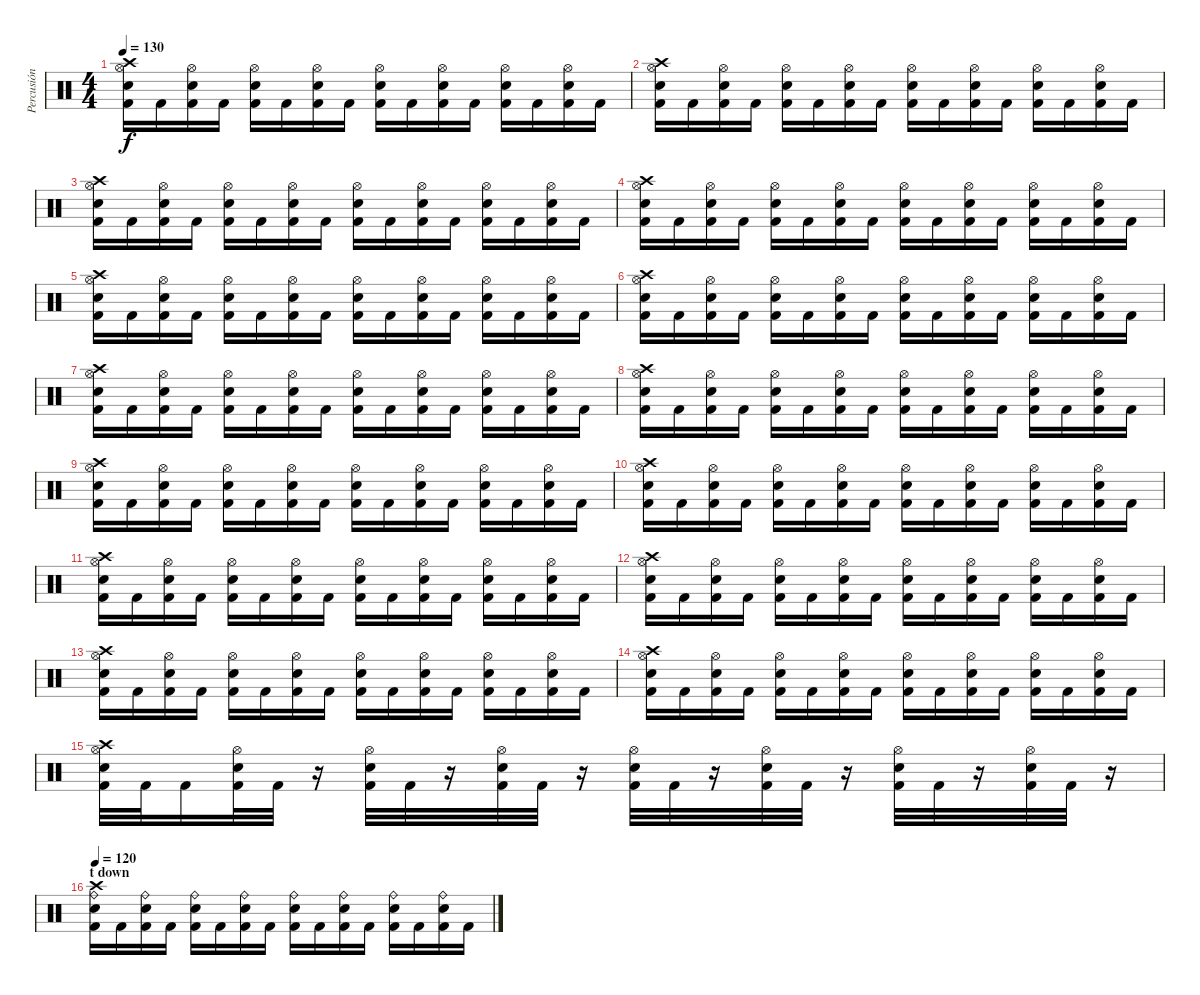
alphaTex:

\track ("Percusión" "Percusión") {instrument percussion}
\staff {score}
\articulation defaults
\ts (4 4)
\tempo 130
\clef neutral
\ks c
("Crash high (hit)" "Hi-Hat (open)" "Electric Snare (hit)" "Kick (hit) 2").16{dy f} "Kick (hit) 2".16 ("Hi-Hat (open)" "Electric Snare (hit)" "Kick (hit) 2").16 "Kick (hit) 2".16 ("Hi-Hat (open)" "Electric Snare (hit)" "Kick (hit) 2").16 "Kick (hit) 2".16 ("Hi-Hat (open)" "Electric Snare (hit)" "Kick (hit) 2").16 "Kick (hit) 2".16 ("Hi-Hat (open)" "Electric Snare (hit)" "Kick (hit) 2").16 "Kick (hit) 2".16 ("Hi-Hat (open)" "Electric Snare (hit)" "Kick (hit) 2").16 "Kick (hit) 2".16 ("Hi-Hat (open)" "Electric Snare (hit)" "Kick (hit) 2").16 "Kick (hit) 2".16 ("Hi-Hat (open)" "Electric Snare (hit)" "Kick (hit) 2").16 "Kick (hit) 2".16 |
("Crash high (hit)" "Hi-Hat (open)" "Electric Snare (hit)" "Kick (hit) 2").16 "Kick (hit) 2".16 ("Hi-Hat (open)" "Electric Snare (hit)" "Kick (hit) 2").16 "Kick (hit) 2".16 ("Hi-Hat (open)" "Electric Snare (hit)" "Kick (hit) 2").16 "Kick (hit) 2".16 ("Hi-Hat (open)" "Electric Snare (hit)" "Kick (hit) 2").16 "Kick (hit) 2".16 ("Hi-Hat (open)" "Electric Snare (hit)" "Kick (hit) 2").16 "Kick (hit) 2".16 ("Hi-Hat (open)" "Electric Snare (hit)" "Kick (hit) 2").16 "Kick (hit) 2".16 ("Hi-Hat (open)" "Electric Snare (hit)" "Kick (hit) 2").16 "Kick (hit) 2".16 ("Hi-Hat (open)" "Electric Snare (hit)" "Kick (hit) 2").16 "Kick (hit) 2".16 |
("Crash high (hit)" "Hi-Hat (open)" "Electric Snare (hit)" "Kick (hit) 2").16 "Kick (hit) 2".16 ("Hi-Hat (open)" "Electric Snare (hit)" "Kick (hit) 2").16 "Kick (hit) 2".16 ("Hi-Hat (open)" "Electric Snare (hit)" "Kick (hit) 2").16 "Kick (hit) 2".16 ("Hi-Hat (open)" "Electric Snare (hit)" "Kick (hit) 2").16 "Kick (hit) 2".16 ("Hi-Hat (open)" "Electric Snare (hit)" "Kick (hit) 2").16 "Kick (hit) 2".16 ("Hi-Hat (open)" "Electric Snare (hit)" "Kick (hit) 2").16 "Kick (hit) 2".16 ("Hi-Hat (open)" "Electric Snare (hit)" "Kick (hit) 2").16 "Kick (hit) 2".16 ("Hi-Hat (open)" "Electric Snare (hit)" "Kick (hit) 2").16 "Kick (hit) 2".16 |
("Crash high (hit)" "Hi-Hat (open)" "Electric Snare (hit)" "Kick (hit) 2").16 "Kick (hit) 2".16 ("Hi-Hat (open)" "Electric Snare (hit)" "Kick (hit) 2").16 "Kick (hit) 2".16 ("Hi-Hat (open)" "Electric Snare (hit)" "Kick (hit) 2").16 "Kick (hit) 2".16 ("Hi-Hat (open)" "Electric Snare (hit)" "Kick (hit) 2").16 "Kick (hit) 2".16 ("Hi-Hat (open)" "Electric Snare (hit)" "Kick (hit) 2").16 "Kick (hit) 2".16 ("Hi-Hat (open)" "Electric Snare (hit)" "Kick (hit) 2").16 "Kick (hit) 2".16 ("Hi-Hat (open)" "Electric Snare (hit)" "Kick (hit) 2").16 "Kick (hit) 2".16 ("Hi-Hat (open)" "Electric Snare (hit)" "Kick (hit) 2").16 "Kick (hit) 2".16 |
("Crash high (hit)" "Hi-Hat (open)" "Electric Snare (hit)" "Kick (hit) 2").16 "Kick (hit) 2".16 ("Hi-Hat (open)" "Electric Snare (hit)" "Kick (hit) 2").16 "Kick (hit) 2".16 ("Hi-Hat (open)" "Electric Snare (hit)" "Kick (hit) 2").16 "Kick (hit) 2".16 ("Hi-Hat (open)" "Electric Snare (hit)" "Kick (hit) 2").16 "Kick (hit) 2".16 ("Hi-Hat (open)" "Electric Snare (hit)" "Kick (hit) 2").16 "Kick (hit) 2".16 ("Hi-Hat (open)" "Electric Snare (hit)" "Kick (hit) 2").16 "Kick (hit) 2".16 ("Hi-Hat (open)" "Electric Snare (hit)" "Kick (hit) 2").16 "Kick (hit) 2".16 ("Hi-Hat (open)" "Electric Snare (hit)" "Kick (hit) 2").16 "Kick (hit) 2".16 |
("Crash high (hit)" "Hi-Hat (open)" "Electric Snare (hit)" "Kick (hit) 2").16 "Kick (hit) 2".16 ("Hi-Hat (open)" "Electric Snare (hit)" "Kick (hit) 2").16 "Kick (hit) 2".16 ("Hi-Hat (open)" "Electric Snare (hit)" "Kick (hit) 2").16 "Kick (hit) 2".16 ("Hi-Hat (open)" "Electric Snare (hit)" "Kick (hit) 2").16 "Kick (hit) 2".16 ("Hi-Hat (open)" "Electric Snare (hit)" "Kick (hit) 2").16 "Kick (hit) 2".16 ("Hi-Hat (open)" "Electric Snare (hit)" "Kick (hit) 2").16 "Kick (hit) 2".16 ("Hi-Hat (open)" "Electric Snare (hit)" "Kick (hit) 2").16 "Kick (hit) 2".16 ("Hi-Hat (open)" "Electric Snare (hit)" "Kick (hit) 2").16 "Kick (hit) 2".16 |
("Crash high (hit)" "Hi-Hat (open)" "Electric Snare (hit)" "Kick (hit) 2").16 "Kick (hit) 2".16 ("Hi-Hat (open)" "Electric Snare (hit)" "Kick (hit) 2").16 "Kick (hit) 2".16 ("Hi-Hat (open)" "Electric Snare (hit)" "Kick (hit) 2").16 "Kick (hit) 2".16 ("Hi-Hat (open)" "Electric Snare (hit)" "Kick (hit) 2").16 "Kick (hit) 2".16 ("Hi-Hat (open)" "Electric Snare (hit)" "Kick (hit) 2").16 "Kick (hit) 2".16 ("Hi-Hat (open)" "Electric Snare (hit)" "Kick (hit) 2").16 "Kick (hit) 2".16 ("Hi-Hat (open)" "Electric Snare (hit)" "Kick (hit) 2").16 "Kick (hit) 2".16 ("Hi-Hat (open)" "Electric Snare (hit)" "Kick (hit) 2").16 "Kick (hit) 2".16 |
("Crash high (hit)" "Hi-Hat (open)" "Electric Snare (hit)" "Kick (hit) 2").16 "Kick (hit) 2".16 ("Hi-Hat (open)" "Electric Snare (hit)" "Kick (hit) 2").16 "Kick (hit) 2".16 ("Hi-Hat (open)" "Electric Snare (hit)" "Kick (hit) 2").16 "Kick (hit) 2".16 ("Hi-Hat (open)" "Electric Snare (hit)" "Kick (hit) 2").16 "Kick (hit) 2".16 ("Hi-Hat (open)" "Electric Snare (hit)" "Kick (hit) 2").16 "Kick (hit) 2".16 ("Hi-Hat (open)" "Electric Snare (hit)" "Kick (hit) 2").16 "Kick (hit) 2".16 ("Hi-Hat (open)" "Electric Snare (hit)" "Kick (hit) 2").16 "Kick (hit) 2".16 ("Hi-Hat (open)" "Electric Snare (hit)" "Kick (hit) 2").16 "Kick (hit) 2".16 |
("Crash high (hit)" "Hi-Hat (open)" "Electric Snare (hit)" "Kick (hit) 2").16 "Kick (hit) 2".16 ("Hi-Hat (open)" "Electric Snare (hit)" "Kick (hit) 2").16 "Kick (hit) 2".16 ("Hi-Hat (open)" "Electric Snare (hit)" "Kick (hit) 2").16 "Kick (hit) 2".16 ("Hi-Hat (open)" "Electric Snare (hit)" "Kick (hit) 2").16 "Kick (hit) 2".16 ("Hi-Hat (open)" "Electric Snare (hit)" "Kick (hit) 2").16 "Kick (hit) 2".16 ("Hi-Hat (open)" "Electric Snare (hit)" "Kick (hit) 2").16 "Kick (hit) 2".16 ("Hi-Hat (open)" "Electric Snare (hit)" "Kick (hit) 2").16 "Kick (hit) 2".16 ("Hi-Hat (open)" "Electric Snare (hit)" "Kick (hit) 2").16 "Kick (hit) 2".16 |
("Crash high (hit)" "Hi-Hat (open)" "Electric Snare (hit)" "Kick (hit) 2").16 "Kick (hit) 2".16 ("Hi-Hat (open)" "Electric Snare (hit)" "Kick (hit) 2").16 "Kick (hit) 2".16 ("Hi-Hat (open)" "Electric Snare (hit)" "Kick (hit) 2").16 "Kick (hit) 2".16 ("Hi-Hat (open)" "Electric Snare (hit)" "Kick (hit) 2").16 "Kick (hit) 2".16 ("Hi-Hat (open)" "Electric Snare (hit)" "Kick (hit) 2").16 "Kick (hit) 2".16 ("Hi-Hat (open)" "Electric Snare (hit)" "Kick (hit) 2").16 "Kick (hit) 2".16 ("Hi-Hat (open)" "Electric Snare (hit)" "Kick (hit) 2").16 "Kick (hit) 2".16 ("Hi-Hat (open)" "Electric Snare (hit)" "Kick (hit) 2").16 "Kick (hit) 2".16 |
("Crash high (hit)" "Hi-Hat (open)" "Electric Snare (hit)" "Kick (hit) 2").16 "Kick (hit) 2".16 ("Hi-Hat (open)" "Electric Snare (hit)" "Kick (hit) 2").16 "Kick (hit) 2".16 ("Hi-Hat (open)" "Electric Snare (hit)" "Kick (hit) 2").16 "Kick (hit) 2".16 ("Hi-Hat (open)" "Electric Snare (hit)" "Kick (hit) 2").16 "Kick (hit) 2".16 ("Hi-Hat (open)" "Electric Snare (hit)" "Kick (hit) 2").16 "Kick (hit) 2".16 ("Hi-Hat (open)" "Electric Snare (hit)" "Kick (hit) 2").16 "Kick (hit) 2".16 ("Hi-Hat (open)" "Electric Snare (hit)" "Kick (hit) 2").16 "Kick (hit) 2".16 ("Hi-Hat (open)" "Electric Snare (hit)" "Kick (hit) 2").16 "Kick (hit) 2".16 |
("Crash high (hit)" "Hi-Hat (open)" "Electric Snare (hit)" "Kick (hit) 2").16 "Kick (hit) 2".16 ("Hi-Hat (open)" "Electric Snare (hit)" "Kick (hit) 2").16 "Kick (hit) 2".16 ("Hi-Hat (open)" "Electric Snare (hit)" "Kick (hit) 2").16 "Kick (hit) 2".16 ("Hi-Hat (open)" "Electric Snare (hit)" "Kick (hit) 2").16 "Kick (hit) 2".16 ("Hi-Hat (open)" "Electric Snare (hit)" "Kick (hit) 2").16 "Kick (hit) 2".16 ("Hi-Hat (open)" "Electric Snare (hit)" "Kick (hit) 2").16 "Kick (hit) 2".16 ("Hi-Hat (open)" "Electric Snare (hit)" "Kick (hit) 2").16 "Kick (hit) 2".16 ("Hi-Hat (open)" "Electric Snare (hit)" "Kick (hit) 2").16 "Kick (hit) 2".16 |
("Crash high (hit)" "Hi-Hat (open)" "Electric Snare (hit)" "Kick (hit) 2").16 "Kick (hit) 2".16 ("Hi-Hat (open)" "Electric Snare (hit)" "Kick (hit) 2").16 "Kick (hit) 2".16 ("Hi-Hat (open)" "Electric Snare (hit)" "Kick (hit) 2").16 "Kick (hit) 2".16 ("Hi-Hat (open)" "Electric Snare (hit)" "Kick (hit) 2").16 "Kick (hit) 2".16 ("Hi-Hat (open)" "Electric Snare (hit)" "Kick (hit) 2").16 "Kick (hit) 2".16 ("Hi-Hat (open)" "Electric Snare (hit)" "Kick (hit) 2").16 "Kick (hit) 2".16 ("Hi-Hat (open)" "Electric Snare (hit)" "Kick (hit) 2").16 "Kick (hit) 2".16 ("Hi-Hat (open)" "Electric Snare (hit)" "Kick (hit) 2").16 "Kick (hit) 2".16 |
("Crash high (hit)" "Hi-Hat (open)" "Electric Snare (hit)" "Kick (hit) 2").16 "Kick (hit) 2".16 ("Hi-Hat (open)" "Electric Snare (hit)" "Kick (hit) 2").16 "Kick (hit) 2".16 ("Hi-Hat (open)" "Electric Snare (hit)" "Kick (hit) 2").16 "Kick (hit) 2".16 ("Hi-Hat (open)" "Electric Snare (hit)" "Kick (hit) 2").16 "Kick (hit) 2".16 ("Hi-Hat (open)" "Electric Snare (hit)" "Kick (hit) 2").16 "Kick (hit) 2".16 ("Hi-Hat (open)" "Electric Snare (hit)" "Kick (hit) 2").16 "Kick (hit) 2".16 ("Hi-Hat (open)" "Electric Snare (hit)" "Kick (hit) 2").16 "Kick (hit) 2".16 ("Hi-Hat (open)" "Electric Snare (hit)" "Kick (hit) 2").16 "Kick (hit) 2".16 |
("Crash high (hit)" "Hi-Hat (open)" "Electric Snare (hit)" "Kick (hit) 2").32 "Kick (hit) 2".32 "Kick (hit) 2".16 ("Hi-Hat (open)" "Electric Snare (hit)" "Kick (hit) 2").32 "Kick (hit) 2".32 r.16 ("Hi-Hat (open)" "Electric Snare (hit)" "Kick (hit) 2").32 "Kick (hit) 2".32 r.16 ("Hi-Hat (open)" "Electric Snare (hit)" "Kick (hit) 2").32 "Kick (hit) 2".32 r.16 ("Hi-Hat (open)" "Electric Snare (hit)" "Kick (hit) 2").32 "Kick (hit) 2".32 r.16 ("Hi-Hat (open)" "Electric Snare (hit)" "Kick (hit) 2").32 "Kick (hit) 2".32 r.16 ("Hi-Hat (open)" "Electric Snare (hit)" "Kick (hit) 2").32 "Kick (hit) 2".32 r.16 ("Hi-Hat (open)" "Electric Snare (hit)" "Kick (hit) 2").32 "Kick (hit) 2".32 r.16 |
\section ("" "t down")
\tempo 120
("Crash high (hit)" "Ride (bell)" "Electric Snare (hit)" "Kick (hit) 2").16 "Kick (hit) 2".16 ("Ride (bell)" "Electric Snare (hit)" "Kick (hit) 2").16 "Kick (hit) 2".16 ("Ride (bell)" "Electric Snare (hit)" "Kick (hit) 2").16 "Kick (hit) 2".16 ("Ride (bell)" "Electric Snare (hit)" "Kick (hit) 2").16 "Kick (hit) 2".16 ("Ride (bell)" "Electric Snare (hit)" "Kick (hit) 2").16 "Kick (hit) 2".16 ("Ride (bell)" "Electric Snare (hit)" "Kick (hit) 2").16 "Kick (hit) 2".16 ("Ride (bell)" "Electric Snare (hit)" "Kick (hit) 2").16 "Kick (hit) 2".16 ("Ride (bell)" "Electric Snare (hit)" "Kick (hit) 2").16 "Kick (hit) 2".16
